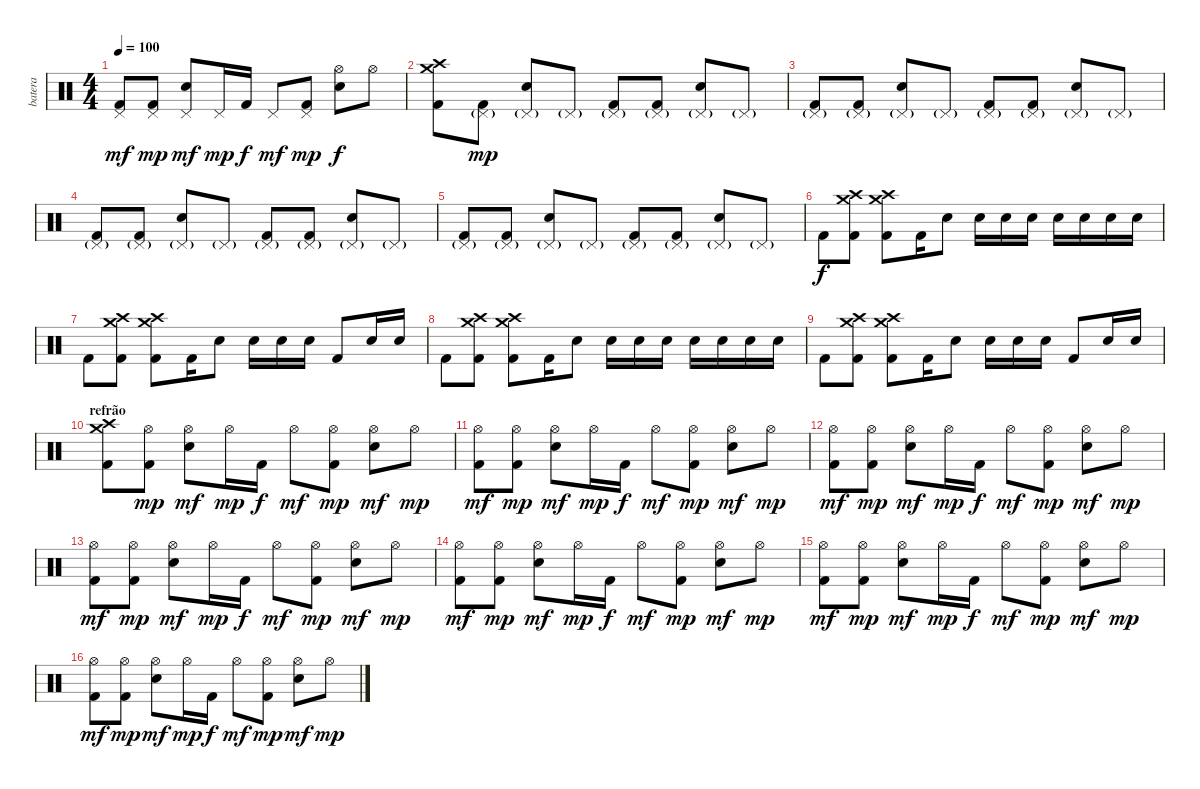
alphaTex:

\track ("batera" "batera") {instrument percussion}
\staff {score}
\articulation defaults
\ts (4 4)
\tempo 100
\clef neutral
\ks c
("Kick (hit) 2" "Pedal Hi-Hat (hit)").8{dy mf} ("Kick (hit) 2" "Pedal Hi-Hat (hit)").8{dy mp} ("Snare (hit) 2" "Pedal Hi-Hat (hit)").8{dy mf} "Pedal Hi-Hat (hit)".16{dy mp} "Kick (hit) 2".16{dy f} "Pedal Hi-Hat (hit)".8{dy mf} ("Kick (hit) 2" "Pedal Hi-Hat (hit)").8{dy mp} ("Snare (hit) 2" "Hi-Hat (open)").8{dy f} "Hi-Hat (open)".8 |
("Crash high (hit)" "Crash medium (hit)" "Kick (hit) 2").8 ("Kick (hit) 2" "Pedal Hi-Hat (hit)"{g}).8{dy mp} ("Snare (hit) 2" "Pedal Hi-Hat (hit)"{g}).8 "Pedal Hi-Hat (hit)"{g}.8 ("Kick (hit) 2" "Pedal Hi-Hat (hit)"{g}).8 ("Kick (hit) 2" "Pedal Hi-Hat (hit)"{g}).8 ("Snare (hit) 2" "Pedal Hi-Hat (hit)"{g}).8 "Pedal Hi-Hat (hit)"{g}.8 |
("Kick (hit) 2" "Pedal Hi-Hat (hit)"{g}).8 ("Kick (hit) 2" "Pedal Hi-Hat (hit)"{g}).8 ("Snare (hit) 2" "Pedal Hi-Hat (hit)"{g}).8 "Pedal Hi-Hat (hit)"{g}.8 ("Kick (hit) 2" "Pedal Hi-Hat (hit)"{g}).8 ("Kick (hit) 2" "Pedal Hi-Hat (hit)"{g}).8 ("Snare (hit) 2" "Pedal Hi-Hat (hit)"{g}).8 "Pedal Hi-Hat (hit)"{g}.8 |
("Kick (hit) 2" "Pedal Hi-Hat (hit)"{g}).8 ("Kick (hit) 2" "Pedal Hi-Hat (hit)"{g}).8 ("Snare (hit) 2" "Pedal Hi-Hat (hit)"{g}).8 "Pedal Hi-Hat (hit)"{g}.8 ("Kick (hit) 2" "Pedal Hi-Hat (hit)"{g}).8 ("Kick (hit) 2" "Pedal Hi-Hat (hit)"{g}).8 ("Snare (hit) 2" "Pedal Hi-Hat (hit)"{g}).8 "Pedal Hi-Hat (hit)"{g}.8 |
("Kick (hit) 2" "Pedal Hi-Hat (hit)"{g}).8 ("Kick (hit) 2" "Pedal Hi-Hat (hit)"{g}).8 ("Snare (hit) 2" "Pedal Hi-Hat (hit)"{g}).8 "Pedal Hi-Hat (hit)"{g}.8 ("Kick (hit) 2" "Pedal Hi-Hat (hit)"{g}).8 ("Kick (hit) 2" "Pedal Hi-Hat (hit)"{g}).8 ("Snare (hit) 2" "Pedal Hi-Hat (hit)"{g}).8 "Pedal Hi-Hat (hit)"{g}.8 |
"Kick (hit) 2".8{dy f} ("Crash high (hit)" "Crash medium (hit)" "Kick (hit) 2").8 ("Crash high (hit)" "Crash medium (hit)" "Kick (hit) 2").8 "Kick (hit) 2".16 "Snare (hit) 2".8 "Snare (hit) 2".16 "Snare (hit) 2".16 "Snare (hit) 2".16 "Snare (hit) 2".16 "Snare (hit) 2".16 "Snare (hit) 2".16 "Snare (hit) 2".16 |
"Kick (hit) 2".8 ("Crash high (hit)" "Crash medium (hit)" "Kick (hit) 2").8 ("Crash high (hit)" "Crash medium (hit)" "Kick (hit) 2").8 "Kick (hit) 2".16 "Snare (hit) 2".8 "Snare (hit) 2".16 "Snare (hit) 2".16 "Snare (hit) 2".16 "Kick (hit) 2".8 "Snare (hit) 2".16 "Snare (hit) 2".16 |
"Kick (hit) 2".8 ("Crash high (hit)" "Crash medium (hit)" "Kick (hit) 2").8 ("Crash high (hit)" "Crash medium (hit)" "Kick (hit) 2").8 "Kick (hit) 2".16 "Snare (hit) 2".8 "Snare (hit) 2".16 "Snare (hit) 2".16 "Snare (hit) 2".16 "Snare (hit) 2".16 "Snare (hit) 2".16 "Snare (hit) 2".16 "Snare (hit) 2".16 |
"Kick (hit) 2".8 ("Crash high (hit)" "Crash medium (hit)" "Kick (hit) 2").8 ("Crash high (hit)" "Crash medium (hit)" "Kick (hit) 2").8 "Kick (hit) 2".16 "Snare (hit) 2".8 "Snare (hit) 2".16 "Snare (hit) 2".16 "Snare (hit) 2".16 "Kick (hit) 2".8 "Snare (hit) 2".16 "Snare (hit) 2".16 |
\section ("" "refrão")
("Crash high (hit)" "Crash medium (hit)" "Kick (hit) 2").8 ("Kick (hit) 2" "Hi-Hat (open)").8{dy mp} ("Snare (hit) 2" "Hi-Hat (open)").8{dy mf} "Hi-Hat (open)".16{dy mp} "Kick (hit) 2".16{dy f} "Hi-Hat (open)".8{dy mf} ("Kick (hit) 2" "Hi-Hat (open)").8{dy mp} ("Snare (hit) 2" "Hi-Hat (open)").8{dy mf} "Hi-Hat (open)".8{dy mp} |
("Kick (hit) 2" "Hi-Hat (open)").8{dy mf} ("Kick (hit) 2" "Hi-Hat (open)").8{dy mp} ("Snare (hit) 2" "Hi-Hat (open)").8{dy mf} "Hi-Hat (open)".16{dy mp} "Kick (hit) 2".16{dy f} "Hi-Hat (open)".8{dy mf} ("Kick (hit) 2" "Hi-Hat (open)").8{dy mp} ("Snare (hit) 2" "Hi-Hat (open)").8{dy mf} "Hi-Hat (open)".8{dy mp} |
("Kick (hit) 2" "Hi-Hat (open)").8{dy mf} ("Kick (hit) 2" "Hi-Hat (open)").8{dy mp} ("Snare (hit) 2" "Hi-Hat (open)").8{dy mf} "Hi-Hat (open)".16{dy mp} "Kick (hit) 2".16{dy f} "Hi-Hat (open)".8{dy mf} ("Kick (hit) 2" "Hi-Hat (open)").8{dy mp} ("Snare (hit) 2" "Hi-Hat (open)").8{dy mf} "Hi-Hat (open)".8{dy mp} |
("Kick (hit) 2" "Hi-Hat (open)").8{dy mf} ("Kick (hit) 2" "Hi-Hat (open)").8{dy mp} ("Snare (hit) 2" "Hi-Hat (open)").8{dy mf} "Hi-Hat (open)".16{dy mp} "Kick (hit) 2".16{dy f} "Hi-Hat (open)".8{dy mf} ("Kick (hit) 2" "Hi-Hat (open)").8{dy mp} ("Snare (hit) 2" "Hi-Hat (open)").8{dy mf} "Hi-Hat (open)".8{dy mp} |
("Kick (hit) 2" "Hi-Hat (open)").8{dy mf} ("Kick (hit) 2" "Hi-Hat (open)").8{dy mp} ("Snare (hit) 2" "Hi-Hat (open)").8{dy mf} "Hi-Hat (open)".16{dy mp} "Kick (hit) 2".16{dy f} "Hi-Hat (open)".8{dy mf} ("Kick (hit) 2" "Hi-Hat (open)").8{dy mp} ("Snare (hit) 2" "Hi-Hat (open)").8{dy mf} "Hi-Hat (open)".8{dy mp} |
("Kick (hit) 2" "Hi-Hat (open)").8{dy mf} ("Kick (hit) 2" "Hi-Hat (open)").8{dy mp} ("Snare (hit) 2" "Hi-Hat (open)").8{dy mf} "Hi-Hat (open)".16{dy mp} "Kick (hit) 2".16{dy f} "Hi-Hat (open)".8{dy mf} ("Kick (hit) 2" "Hi-Hat (open)").8{dy mp} ("Snare (hit) 2" "Hi-Hat (open)").8{dy mf} "Hi-Hat (open)".8{dy mp} |
("Kick (hit) 2" "Hi-Hat (open)").8{dy mf} ("Kick (hit) 2" "Hi-Hat (open)").8{dy mp} ("Snare (hit) 2" "Hi-Hat (open)").8{dy mf} "Hi-Hat (open)".16{dy mp} "Kick (hit) 2".16{dy f} "Hi-Hat (open)".8{dy mf} ("Kick (hit) 2" "Hi-Hat (open)").8{dy mp} ("Snare (hit) 2" "Hi-Hat (open)").8{dy mf} "Hi-Hat (open)".8{dy mp}
